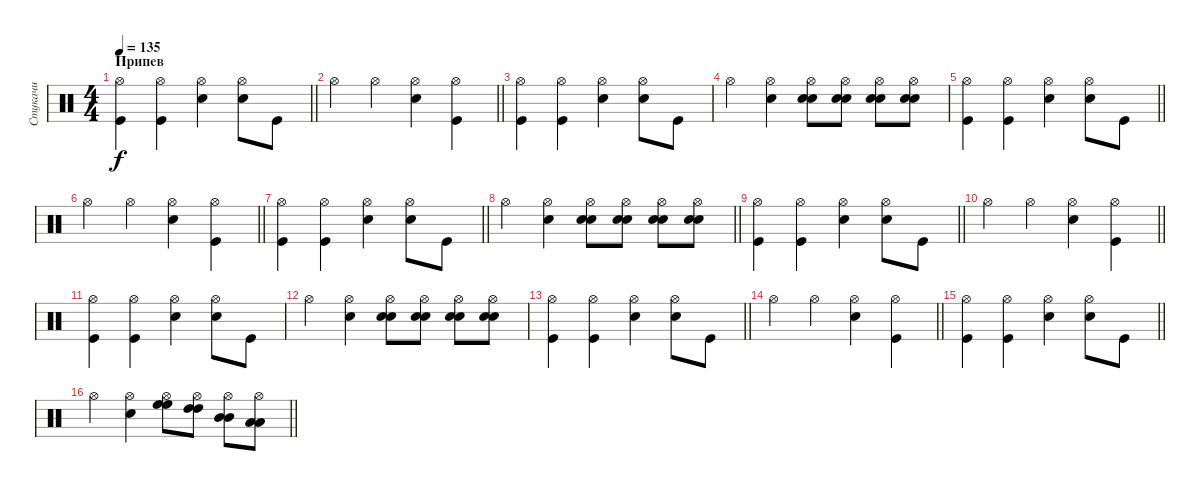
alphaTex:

\track ("Стукачи" "Стукачи") {instrument percussion}
\staff {score}
\articulation defaults
\ts (4 4)
\section ("" "Припев")
\tempo 135
\clef neutral
\barLineRight lightlight
\ks c
("Hi-Hat (open)" "Kick (hit)").4{dy f volume 15} ("Hi-Hat (open)" "Kick (hit)").4 ("Hi-Hat (open)" "Snare (hit) 2").4 ("Hi-Hat (open)" "Snare (hit) 2").8 "Kick (hit)".8 |
\barLineRight lightlight "Hi-Hat (open)".4 "Hi-Hat (open)".4
("Hi-Hat (open)" "Snare (hit) 2").4 ("Hi-Hat (open)" "Kick (hit)").4 |
("Hi-Hat (open)" "Kick (hit)").4 ("Hi-Hat (open)" "Kick (hit)").4 ("Hi-Hat (open)" "Snare (hit) 2").4 ("Hi-Hat (open)" "Snare (hit) 2").8 "Kick (hit)".8 |
"Hi-Hat (open)".4 ("Hi-Hat (open)" "Snare (hit) 2").4 ("Hi-Hat (open)" "Snare (hit) 2" "Snare (hit) 2").8 ("Hi-Hat (open)" "Snare (hit) 2" "Snare (hit) 2").8 ("Hi-Hat (open)" "Snare (hit) 2" "Snare (hit) 2").8 ("Hi-Hat (open)" "Snare (hit) 2" "Snare (hit) 2").8 |
\barLineRight lightlight
("Hi-Hat (open)" "Kick (hit)").4 ("Hi-Hat (open)" "Kick (hit)").4 ("Hi-Hat (open)" "Snare (hit) 2").4 ("Hi-Hat (open)" "Snare (hit) 2").8 "Kick (hit)".8 |
\barLineRight lightlight "Hi-Hat (open)".4 "Hi-Hat (open)".4
("Hi-Hat (open)" "Snare (hit) 2").4 ("Hi-Hat (open)" "Kick (hit)").4 |
\barLineRight lightlight
("Hi-Hat (open)" "Kick (hit)").4 ("Hi-Hat (open)" "Kick (hit)").4 ("Hi-Hat (open)" "Snare (hit) 2").4 ("Hi-Hat (open)" "Snare (hit) 2").8 "Kick (hit)".8 |
\barLineRight lightlight "Hi-Hat (open)".4
("Hi-Hat (open)" "Snare (hit) 2").4 ("Hi-Hat (open)" "Snare (hit) 2" "Snare (hit) 2").8 ("Hi-Hat (open)" "Snare (hit) 2" "Snare (hit) 2").8 ("Hi-Hat (open)" "Snare (hit) 2" "Snare (hit) 2").8 ("Hi-Hat (open)" "Snare (hit) 2" "Snare (hit) 2").8 |
\barLineRight lightlight
("Hi-Hat (open)" "Kick (hit)").4 ("Hi-Hat (open)" "Kick (hit)").4 ("Hi-Hat (open)" "Snare (hit) 2").4 ("Hi-Hat (open)" "Snare (hit) 2").8 "Kick (hit)".8 |
\barLineRight lightlight "Hi-Hat (open)".4 "Hi-Hat (open)".4
("Hi-Hat (open)" "Snare (hit) 2").4 ("Hi-Hat (open)" "Kick (hit)").4 |
("Hi-Hat (open)" "Kick (hit)").4 ("Hi-Hat (open)" "Kick (hit)").4 ("Hi-Hat (open)" "Snare (hit) 2").4 ("Hi-Hat (open)" "Snare (hit) 2").8 "Kick (hit)".8 |
"Hi-Hat (open)".4 ("Hi-Hat (open)" "Snare (hit) 2").4 ("Hi-Hat (open)" "Snare (hit) 2" "Snare (hit) 2").8 ("Hi-Hat (open)" "Snare (hit) 2" "Snare (hit) 2").8 ("Hi-Hat (open)" "Snare (hit) 2" "Snare (hit) 2").8 ("Hi-Hat (open)" "Snare (hit) 2" "Snare (hit) 2").8 |
\barLineRight lightlight
("Hi-Hat (open)" "Kick (hit)").4 ("Hi-Hat (open)" "Kick (hit)").4 ("Hi-Hat (open)" "Snare (hit) 2").4 ("Hi-Hat (open)" "Snare (hit) 2").8 "Kick (hit)".8 |
\barLineRight lightlight "Hi-Hat (open)".4 "Hi-Hat (open)".4
("Hi-Hat (open)" "Snare (hit) 2").4 ("Hi-Hat (open)" "Kick (hit)").4 |
\barLineRight lightlight
("Hi-Hat (open)" "Kick (hit)").4 ("Hi-Hat (open)" "Kick (hit)").4 ("Hi-Hat (open)" "Snare (hit) 2").4 ("Hi-Hat (open)" "Snare (hit) 2").8 "Kick (hit)".8 |
\barLineRight lightlight "Hi-Hat (open)".4
("Hi-Hat (open)" "Snare (hit) 2").4 ("Hi-Hat (open)" "High Floor Tom (hit)" "High Floor Tom (hit)").8 ("Hi-Hat (open)" "High Tom (hit)" "High Tom (hit)").8 ("Hi-Hat (open)" "Mid Tom (hit)" "Mid Tom (hit)").8 ("Hi-Hat (open)" "Low Tom (hit)" "Low Tom (hit)").8
